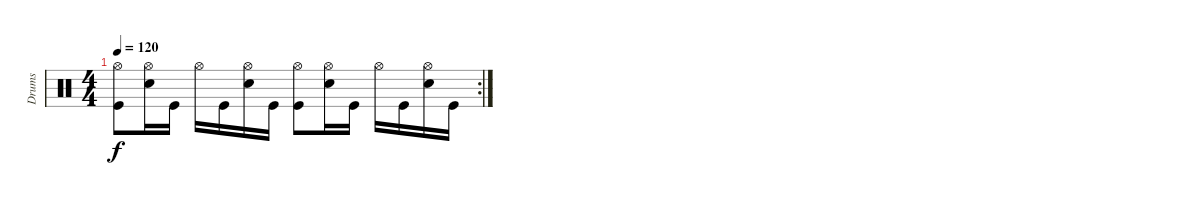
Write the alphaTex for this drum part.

\track ("Drums" "Drums") {instrument percussion}
\staff {score}
\articulation defaults
\rc 2
\ts (4 4)
\tempo 120
\clef neutral
\ks c
("Hi-Hat (open)" "Kick (hit)").8{dy f} ("Hi-Hat (open)" "Snare (hit) 2").16 "Kick (hit)".16 "Hi-Hat (open)".16 "Kick (hit)".16 ("Hi-Hat (open)" "Snare (hit) 2").16 "Kick (hit)".16 ("Hi-Hat (open)" "Kick (hit)").8 ("Hi-Hat (open)" "Snare (hit) 2").16 "Kick (hit)".16 "Hi-Hat (open)".16 "Kick (hit)".16 ("Hi-Hat (open)" "Snare (hit) 2").16 "Kick (hit)".16
